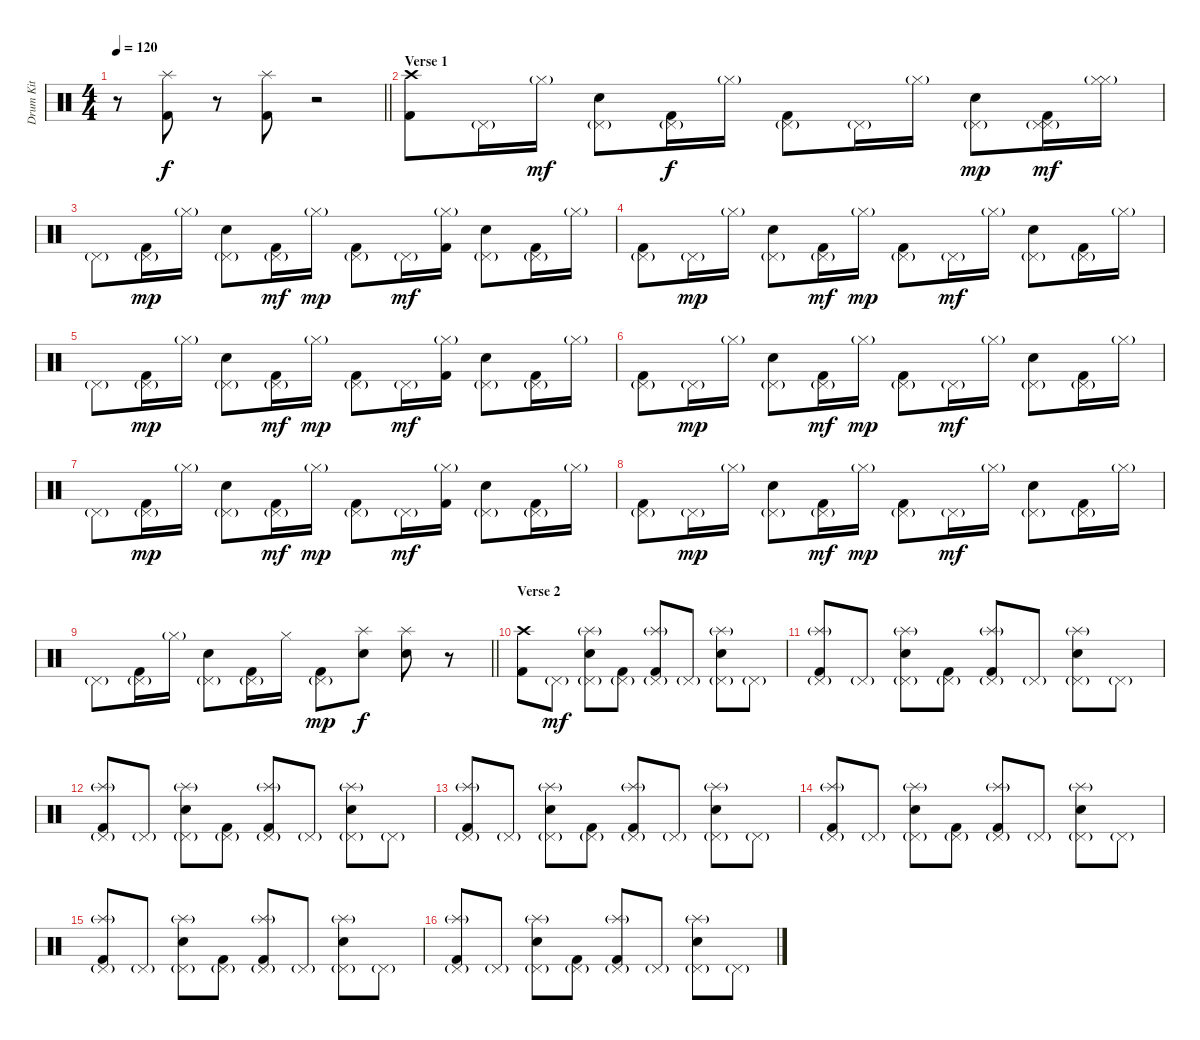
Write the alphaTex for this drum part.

\track ("Drum Kit" "Drum Kit") {instrument percussion}
\staff {score}
\articulation defaults
\ts (4 4)
\tempo 120
\clef neutral
\barLineRight lightlight
\ks c
r.8{dy f} ("Kick (hit) 2" "Splash (hit)").8 r.8 ("Kick (hit) 2" "Splash (hit)").8 r.2 |
\section ("" "Verse 1")
("Crash high (hit)" "Kick (hit) 2").8 "Pedal Hi-Hat (hit)"{g}.16 "Hi-Hat (closed)"{g}.16{dy mf} ("Snare (hit) 2" "Pedal Hi-Hat (hit)"{g}).8 ("Kick (hit) 2" "Pedal Hi-Hat (hit)"{g}).16{dy f} "Hi-Hat (closed)"{g}.16 ("Kick (hit) 2" "Pedal Hi-Hat (hit)"{g}).8 "Pedal Hi-Hat (hit)"{g}.16 "Hi-Hat (closed)"{g}.16 ("Snare (hit) 2" "Pedal Hi-Hat (hit)"{g}).8{dy mp} ("Kick (hit) 2" "Pedal Hi-Hat (hit)" "Pedal Hi-Hat (hit)"{g}).16{dy mf} ("Hi-Hat (closed)" "Hi-Hat (closed)"{g}).16 |
"Pedal Hi-Hat (hit)"{g}.8 ("Kick (hit) 2" "Pedal Hi-Hat (hit)"{g}).16{dy mp} "Hi-Hat (closed)"{g}.16 ("Snare (hit) 2" "Pedal Hi-Hat (hit)"{g}).8 ("Pedal Hi-Hat (hit)"{g} "Kick (hit) 2").16{dy mf} "Hi-Hat (closed)"{g}.16{dy mp} ("Kick (hit) 2" "Pedal Hi-Hat (hit)"{g}).8 "Pedal Hi-Hat (hit)"{g}.16{dy mf} ("Kick (hit) 2" "Hi-Hat (closed)"{g}).16 ("Snare (hit) 2" "Pedal Hi-Hat (hit)"{g}).8 ("Pedal Hi-Hat (hit)"{g} "Kick (hit) 2").16 "Hi-Hat (closed)"{g}.16 |
("Pedal Hi-Hat (hit)"{g} "Kick (hit) 2").8 "Pedal Hi-Hat (hit)"{g}.16{dy mp} "Hi-Hat (closed)"{g}.16 ("Snare (hit) 2" "Pedal Hi-Hat (hit)"{g}).8 ("Pedal Hi-Hat (hit)"{g} "Kick (hit) 2").16{dy mf} "Hi-Hat (closed)"{g}.16{dy mp} ("Kick (hit) 2" "Pedal Hi-Hat (hit)"{g}).8 "Pedal Hi-Hat (hit)"{g}.16{dy mf} "Hi-Hat (closed)"{g}.16 ("Snare (hit) 2" "Pedal Hi-Hat (hit)"{g}).8 ("Pedal Hi-Hat (hit)"{g} "Kick (hit) 2").16 "Hi-Hat (closed)"{g}.16 |
"Pedal Hi-Hat (hit)"{g}.8 ("Kick (hit) 2" "Pedal Hi-Hat (hit)"{g}).16{dy mp} "Hi-Hat (closed)"{g}.16 ("Snare (hit) 2" "Pedal Hi-Hat (hit)"{g}).8 ("Pedal Hi-Hat (hit)"{g} "Kick (hit) 2").16{dy mf} "Hi-Hat (closed)"{g}.16{dy mp} ("Kick (hit) 2" "Pedal Hi-Hat (hit)"{g}).8 "Pedal Hi-Hat (hit)"{g}.16{dy mf} ("Kick (hit) 2" "Hi-Hat (closed)"{g}).16 ("Snare (hit) 2" "Pedal Hi-Hat (hit)"{g}).8 ("Pedal Hi-Hat (hit)"{g} "Kick (hit) 2").16 "Hi-Hat (closed)"{g}.16 |
("Pedal Hi-Hat (hit)"{g} "Kick (hit) 2").8 "Pedal Hi-Hat (hit)"{g}.16{dy mp} "Hi-Hat (closed)"{g}.16 ("Snare (hit) 2" "Pedal Hi-Hat (hit)"{g}).8 ("Pedal Hi-Hat (hit)"{g} "Kick (hit) 2").16{dy mf} "Hi-Hat (closed)"{g}.16{dy mp} ("Kick (hit) 2" "Pedal Hi-Hat (hit)"{g}).8 "Pedal Hi-Hat (hit)"{g}.16{dy mf} "Hi-Hat (closed)"{g}.16 ("Snare (hit) 2" "Pedal Hi-Hat (hit)"{g}).8 ("Pedal Hi-Hat (hit)"{g} "Kick (hit) 2").16 "Hi-Hat (closed)"{g}.16 |
"Pedal Hi-Hat (hit)"{g}.8 ("Kick (hit) 2" "Pedal Hi-Hat (hit)"{g}).16{dy mp} "Hi-Hat (closed)"{g}.16 ("Snare (hit) 2" "Pedal Hi-Hat (hit)"{g}).8 ("Pedal Hi-Hat (hit)"{g} "Kick (hit) 2").16{dy mf} "Hi-Hat (closed)"{g}.16{dy mp} ("Kick (hit) 2" "Pedal Hi-Hat (hit)"{g}).8 "Pedal Hi-Hat (hit)"{g}.16{dy mf} ("Kick (hit) 2" "Hi-Hat (closed)"{g}).16 ("Snare (hit) 2" "Pedal Hi-Hat (hit)"{g}).8 ("Pedal Hi-Hat (hit)"{g} "Kick (hit) 2").16 "Hi-Hat (closed)"{g}.16 |
("Pedal Hi-Hat (hit)"{g} "Kick (hit) 2").8 "Pedal Hi-Hat (hit)"{g}.16{dy mp} "Hi-Hat (closed)"{g}.16 ("Snare (hit) 2" "Pedal Hi-Hat (hit)"{g}).8 ("Pedal Hi-Hat (hit)"{g} "Kick (hit) 2").16{dy mf} "Hi-Hat (closed)"{g}.16{dy mp} ("Kick (hit) 2" "Pedal Hi-Hat (hit)"{g}).8 "Pedal Hi-Hat (hit)"{g}.16{dy mf} "Hi-Hat (closed)"{g}.16 ("Snare (hit) 2" "Pedal Hi-Hat (hit)"{g}).8 ("Pedal Hi-Hat (hit)"{g} "Kick (hit) 2").16 "Hi-Hat (closed)"{g}.16 |
\barLineRight lightlight "Pedal Hi-Hat (hit)"{g}.8
("Kick (hit) 2" "Pedal Hi-Hat (hit)"{g}).16 "Hi-Hat (closed)"{g}.16 ("Snare (hit) 2" "Pedal Hi-Hat (hit)"{g}).8 ("Pedal Hi-Hat (hit)"{g} "Kick (hit) 2").16 "Hi-Hat (closed)".16 ("Kick (hit) 2" "Pedal Hi-Hat (hit)"{g}).8{dy mp} ("Electric Snare (hit)" "Splash (hit)").8{dy f} ("Electric Snare (hit)" "Splash (hit)").8 r.8 |
\section ("" "Verse 2")
("Crash high (hit)" "Kick (hit) 2").8 "Pedal Hi-Hat (hit)"{g}.8{dy mf} ("Electric Snare (hit)" "Pedal Hi-Hat (hit)"{g} "Splash (hit)"{g}).8 ("Kick (hit) 2" "Pedal Hi-Hat (hit)"{g}).8 ("Kick (hit) 2" "Pedal Hi-Hat (hit)"{g} "Splash (hit)"{g}).8 "Pedal Hi-Hat (hit)"{g}.8 ("Electric Snare (hit)" "Pedal Hi-Hat (hit)"{g} "Splash (hit)"{g}).8 "Pedal Hi-Hat (hit)"{g}.8 |
("Kick (hit) 2" "Splash (hit)"{g} "Pedal Hi-Hat (hit)"{g}).8 "Pedal Hi-Hat (hit)"{g}.8 ("Electric Snare (hit)" "Splash (hit)"{g} "Pedal Hi-Hat (hit)"{g}).8 ("Kick (hit) 2" "Pedal Hi-Hat (hit)"{g}).8 ("Kick (hit) 2" "Splash (hit)"{g} "Pedal Hi-Hat (hit)"{g}).8 "Pedal Hi-Hat (hit)"{g}.8 ("Electric Snare (hit)" "Splash (hit)"{g} "Pedal Hi-Hat (hit)"{g}).8 "Pedal Hi-Hat (hit)"{g}.8 |
("Kick (hit) 2" "Splash (hit)"{g} "Pedal Hi-Hat (hit)"{g}).8 "Pedal Hi-Hat (hit)"{g}.8 ("Electric Snare (hit)" "Splash (hit)"{g} "Pedal Hi-Hat (hit)"{g}).8 ("Kick (hit) 2" "Pedal Hi-Hat (hit)"{g}).8 ("Kick (hit) 2" "Splash (hit)"{g} "Pedal Hi-Hat (hit)"{g}).8 "Pedal Hi-Hat (hit)"{g}.8 ("Electric Snare (hit)" "Splash (hit)"{g} "Pedal Hi-Hat (hit)"{g}).8 "Pedal Hi-Hat (hit)"{g}.8 |
("Kick (hit) 2" "Splash (hit)"{g} "Pedal Hi-Hat (hit)"{g}).8 "Pedal Hi-Hat (hit)"{g}.8 ("Electric Snare (hit)" "Splash (hit)"{g} "Pedal Hi-Hat (hit)"{g}).8 ("Kick (hit) 2" "Pedal Hi-Hat (hit)"{g}).8 ("Kick (hit) 2" "Splash (hit)"{g} "Pedal Hi-Hat (hit)"{g}).8 "Pedal Hi-Hat (hit)"{g}.8 ("Electric Snare (hit)" "Splash (hit)"{g} "Pedal Hi-Hat (hit)"{g}).8 "Pedal Hi-Hat (hit)"{g}.8 |
("Kick (hit) 2" "Splash (hit)"{g} "Pedal Hi-Hat (hit)"{g}).8 "Pedal Hi-Hat (hit)"{g}.8 ("Electric Snare (hit)" "Splash (hit)"{g} "Pedal Hi-Hat (hit)"{g}).8 ("Kick (hit) 2" "Pedal Hi-Hat (hit)"{g}).8 ("Kick (hit) 2" "Splash (hit)"{g} "Pedal Hi-Hat (hit)"{g}).8 "Pedal Hi-Hat (hit)"{g}.8 ("Electric Snare (hit)" "Splash (hit)"{g} "Pedal Hi-Hat (hit)"{g}).8 "Pedal Hi-Hat (hit)"{g}.8 |
("Kick (hit) 2" "Splash (hit)"{g} "Pedal Hi-Hat (hit)"{g}).8 "Pedal Hi-Hat (hit)"{g}.8 ("Electric Snare (hit)" "Splash (hit)"{g} "Pedal Hi-Hat (hit)"{g}).8 ("Kick (hit) 2" "Pedal Hi-Hat (hit)"{g}).8 ("Kick (hit) 2" "Splash (hit)"{g} "Pedal Hi-Hat (hit)"{g}).8 "Pedal Hi-Hat (hit)"{g}.8 ("Electric Snare (hit)" "Splash (hit)"{g} "Pedal Hi-Hat (hit)"{g}).8 "Pedal Hi-Hat (hit)"{g}.8 |
("Kick (hit) 2" "Splash (hit)"{g} "Pedal Hi-Hat (hit)"{g}).8 "Pedal Hi-Hat (hit)"{g}.8 ("Electric Snare (hit)" "Splash (hit)"{g} "Pedal Hi-Hat (hit)"{g}).8 ("Kick (hit) 2" "Pedal Hi-Hat (hit)"{g}).8 ("Kick (hit) 2" "Splash (hit)"{g} "Pedal Hi-Hat (hit)"{g}).8 "Pedal Hi-Hat (hit)"{g}.8 ("Electric Snare (hit)" "Splash (hit)"{g} "Pedal Hi-Hat (hit)"{g}).8 "Pedal Hi-Hat (hit)"{g}.8
